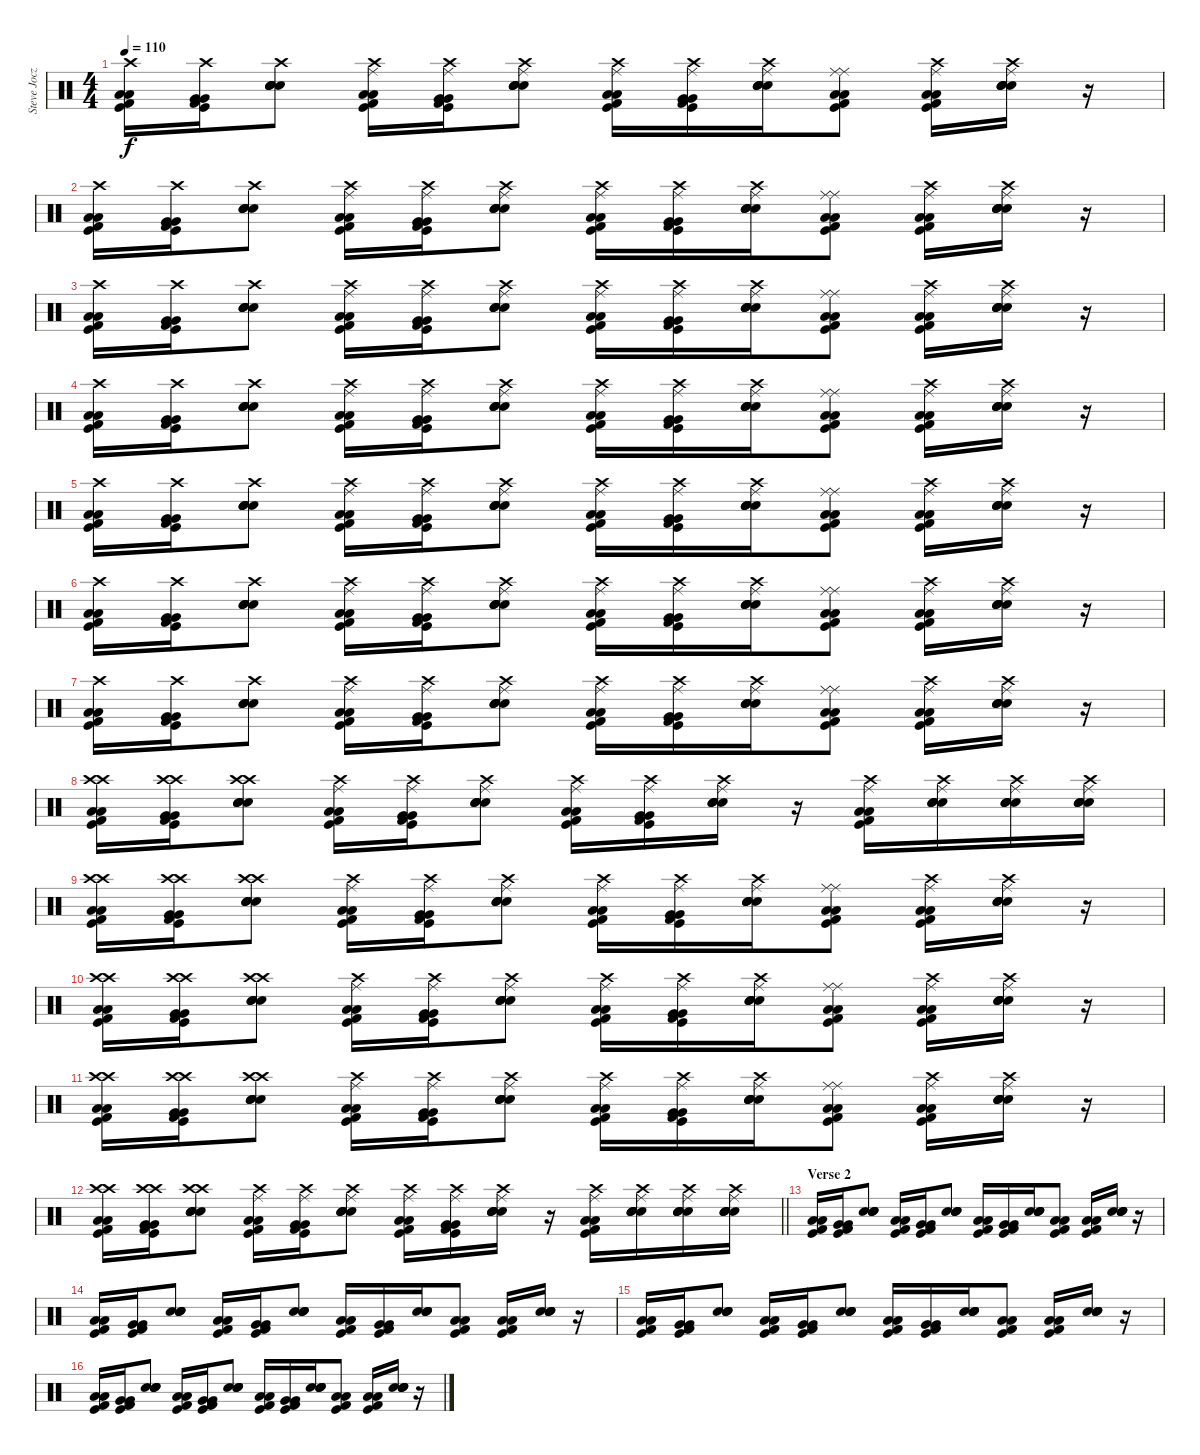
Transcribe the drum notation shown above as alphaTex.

\track ("Steve Jocz" "Steve Jocz") {instrument percussion}
\staff {score}
\articulation defaults
\ts (4 4)
\tempo 110
\clef neutral
\ks c
("Low Floor Tom (hit)" "Crash high (hit)" "Low Floor Tom (hit)" "Kick (hit)" "Kick (hit) 2").16{dy f} ("Very Low Tom (hit)" "Crash high (hit)" "Very Low Tom (hit)" "Kick (hit)" "Kick (hit) 2").16 ("Snare (hit) 2" "Crash high (hit)" "Snare (hit) 2" "Electric Snare (hit)" "Electric Snare (hit)").8 ("Low Floor Tom (hit)" "Ride (middle)" "Low Floor Tom (hit)" "Kick (hit)" "Crash high (hit)" "Kick (hit) 2").16 ("Very Low Tom (hit)" "Ride (middle)" "Very Low Tom (hit)" "Kick (hit)" "Crash high (hit)" "Kick (hit) 2").16 ("Snare (hit) 2" "Ride (middle)" "Snare (hit) 2" "Electric Snare (hit)" "Crash high (hit)" "Electric Snare (hit)").8 ("Low Floor Tom (hit)" "Ride (middle)" "Low Floor Tom (hit)" "Kick (hit)" "Crash high (hit)" "Kick (hit) 2").16 ("Very Low Tom (hit)" "Ride (middle)" "Very Low Tom (hit)" "Kick (hit)" "Crash high (hit)" "Kick (hit) 2").16 ("Snare (hit) 2" "Ride (middle)" "Snare (hit) 2" "Electric Snare (hit)" "Crash high (hit)" "Electric Snare (hit)").16 ("Low Floor Tom (hit)" "Ride (middle)" "Low Floor Tom (hit)" "Kick (hit)" "Ride (middle)" "Kick (hit) 2").8 ("Low Floor Tom (hit)" "Ride (middle)" "Low Floor Tom (hit)" "Kick (hit)" "Crash high (hit)" "Kick (hit) 2").16 ("Snare (hit) 2" "Ride (middle)" "Snare (hit) 2" "Electric Snare (hit)" "Crash high (hit)" "Electric Snare (hit)").16 r.16 |
("Low Floor Tom (hit)" "Crash high (hit)" "Low Floor Tom (hit)" "Kick (hit)" "Kick (hit) 2").16 ("Very Low Tom (hit)" "Crash high (hit)" "Very Low Tom (hit)" "Kick (hit)" "Kick (hit) 2").16 ("Snare (hit) 2" "Crash high (hit)" "Snare (hit) 2" "Electric Snare (hit)" "Electric Snare (hit)").8 ("Low Floor Tom (hit)" "Ride (middle)" "Low Floor Tom (hit)" "Kick (hit)" "Crash high (hit)" "Kick (hit) 2").16 ("Very Low Tom (hit)" "Ride (middle)" "Very Low Tom (hit)" "Kick (hit)" "Crash high (hit)" "Kick (hit) 2").16 ("Snare (hit) 2" "Ride (middle)" "Snare (hit) 2" "Electric Snare (hit)" "Crash high (hit)" "Electric Snare (hit)").8 ("Low Floor Tom (hit)" "Ride (middle)" "Low Floor Tom (hit)" "Kick (hit)" "Crash high (hit)" "Kick (hit) 2").16 ("Very Low Tom (hit)" "Ride (middle)" "Very Low Tom (hit)" "Kick (hit)" "Crash high (hit)" "Kick (hit) 2").16 ("Snare (hit) 2" "Ride (middle)" "Snare (hit) 2" "Electric Snare (hit)" "Crash high (hit)" "Electric Snare (hit)").16 ("Low Floor Tom (hit)" "Ride (middle)" "Low Floor Tom (hit)" "Kick (hit)" "Ride (middle)" "Kick (hit) 2").8 ("Low Floor Tom (hit)" "Ride (middle)" "Low Floor Tom (hit)" "Kick (hit)" "Crash high (hit)" "Kick (hit) 2").16 ("Snare (hit) 2" "Ride (middle)" "Snare (hit) 2" "Electric Snare (hit)" "Crash high (hit)" "Electric Snare (hit)").16 r.16 |
("Low Floor Tom (hit)" "Crash high (hit)" "Low Floor Tom (hit)" "Kick (hit)" "Kick (hit) 2").16 ("Very Low Tom (hit)" "Crash high (hit)" "Very Low Tom (hit)" "Kick (hit)" "Kick (hit) 2").16 ("Snare (hit) 2" "Crash high (hit)" "Snare (hit) 2" "Electric Snare (hit)" "Electric Snare (hit)").8 ("Low Floor Tom (hit)" "Ride (middle)" "Low Floor Tom (hit)" "Kick (hit)" "Crash high (hit)" "Kick (hit) 2").16 ("Very Low Tom (hit)" "Ride (middle)" "Very Low Tom (hit)" "Kick (hit)" "Crash high (hit)" "Kick (hit) 2").16 ("Snare (hit) 2" "Ride (middle)" "Snare (hit) 2" "Electric Snare (hit)" "Crash high (hit)" "Electric Snare (hit)").8 ("Low Floor Tom (hit)" "Ride (middle)" "Low Floor Tom (hit)" "Kick (hit)" "Crash high (hit)" "Kick (hit) 2").16 ("Very Low Tom (hit)" "Ride (middle)" "Very Low Tom (hit)" "Kick (hit)" "Crash high (hit)" "Kick (hit) 2").16 ("Snare (hit) 2" "Ride (middle)" "Snare (hit) 2" "Electric Snare (hit)" "Crash high (hit)" "Electric Snare (hit)").16 ("Low Floor Tom (hit)" "Ride (middle)" "Low Floor Tom (hit)" "Kick (hit)" "Ride (middle)" "Kick (hit) 2").8 ("Low Floor Tom (hit)" "Ride (middle)" "Low Floor Tom (hit)" "Kick (hit)" "Crash high (hit)" "Kick (hit) 2").16 ("Snare (hit) 2" "Ride (middle)" "Snare (hit) 2" "Electric Snare (hit)" "Crash high (hit)" "Electric Snare (hit)").16 r.16 |
("Low Floor Tom (hit)" "Crash high (hit)" "Low Floor Tom (hit)" "Kick (hit)" "Kick (hit) 2").16 ("Very Low Tom (hit)" "Crash high (hit)" "Very Low Tom (hit)" "Kick (hit)" "Kick (hit) 2").16 ("Snare (hit) 2" "Crash high (hit)" "Snare (hit) 2" "Electric Snare (hit)" "Electric Snare (hit)").8 ("Low Floor Tom (hit)" "Ride (middle)" "Low Floor Tom (hit)" "Kick (hit)" "Crash high (hit)" "Kick (hit) 2").16 ("Very Low Tom (hit)" "Ride (middle)" "Very Low Tom (hit)" "Kick (hit)" "Crash high (hit)" "Kick (hit) 2").16 ("Snare (hit) 2" "Ride (middle)" "Snare (hit) 2" "Electric Snare (hit)" "Crash high (hit)" "Electric Snare (hit)").8 ("Low Floor Tom (hit)" "Ride (middle)" "Low Floor Tom (hit)" "Kick (hit)" "Crash high (hit)" "Kick (hit) 2").16 ("Very Low Tom (hit)" "Ride (middle)" "Very Low Tom (hit)" "Kick (hit)" "Crash high (hit)" "Kick (hit) 2").16 ("Snare (hit) 2" "Ride (middle)" "Snare (hit) 2" "Electric Snare (hit)" "Crash high (hit)" "Electric Snare (hit)").16 ("Low Floor Tom (hit)" "Ride (middle)" "Low Floor Tom (hit)" "Kick (hit)" "Ride (middle)" "Kick (hit) 2").8 ("Low Floor Tom (hit)" "Ride (middle)" "Low Floor Tom (hit)" "Kick (hit)" "Crash high (hit)" "Kick (hit) 2").16 ("Snare (hit) 2" "Ride (middle)" "Snare (hit) 2" "Electric Snare (hit)" "Crash high (hit)" "Electric Snare (hit)").16 r.16 |
("Low Floor Tom (hit)" "Crash high (hit)" "Low Floor Tom (hit)" "Kick (hit)" "Kick (hit) 2").16 ("Very Low Tom (hit)" "Crash high (hit)" "Very Low Tom (hit)" "Kick (hit)" "Kick (hit) 2").16 ("Snare (hit) 2" "Crash high (hit)" "Snare (hit) 2" "Electric Snare (hit)" "Electric Snare (hit)").8 ("Low Floor Tom (hit)" "Ride (middle)" "Low Floor Tom (hit)" "Kick (hit)" "Crash high (hit)" "Kick (hit) 2").16 ("Very Low Tom (hit)" "Ride (middle)" "Very Low Tom (hit)" "Kick (hit)" "Crash high (hit)" "Kick (hit) 2").16 ("Snare (hit) 2" "Ride (middle)" "Snare (hit) 2" "Electric Snare (hit)" "Crash high (hit)" "Electric Snare (hit)").8 ("Low Floor Tom (hit)" "Ride (middle)" "Low Floor Tom (hit)" "Kick (hit)" "Crash high (hit)" "Kick (hit) 2").16 ("Very Low Tom (hit)" "Ride (middle)" "Very Low Tom (hit)" "Kick (hit)" "Crash high (hit)" "Kick (hit) 2").16 ("Snare (hit) 2" "Ride (middle)" "Snare (hit) 2" "Electric Snare (hit)" "Crash high (hit)" "Electric Snare (hit)").16 ("Low Floor Tom (hit)" "Ride (middle)" "Low Floor Tom (hit)" "Kick (hit)" "Ride (middle)" "Kick (hit) 2").8 ("Low Floor Tom (hit)" "Ride (middle)" "Low Floor Tom (hit)" "Kick (hit)" "Crash high (hit)" "Kick (hit) 2").16 ("Snare (hit) 2" "Ride (middle)" "Snare (hit) 2" "Electric Snare (hit)" "Crash high (hit)" "Electric Snare (hit)").16 r.16 |
("Low Floor Tom (hit)" "Crash high (hit)" "Low Floor Tom (hit)" "Kick (hit)" "Kick (hit) 2").16 ("Very Low Tom (hit)" "Crash high (hit)" "Very Low Tom (hit)" "Kick (hit)" "Kick (hit) 2").16 ("Snare (hit) 2" "Crash high (hit)" "Snare (hit) 2" "Electric Snare (hit)" "Electric Snare (hit)").8 ("Low Floor Tom (hit)" "Ride (middle)" "Low Floor Tom (hit)" "Kick (hit)" "Crash high (hit)" "Kick (hit) 2").16 ("Very Low Tom (hit)" "Ride (middle)" "Very Low Tom (hit)" "Kick (hit)" "Crash high (hit)" "Kick (hit) 2").16 ("Snare (hit) 2" "Ride (middle)" "Snare (hit) 2" "Electric Snare (hit)" "Crash high (hit)" "Electric Snare (hit)").8 ("Low Floor Tom (hit)" "Ride (middle)" "Low Floor Tom (hit)" "Kick (hit)" "Crash high (hit)" "Kick (hit) 2").16 ("Very Low Tom (hit)" "Ride (middle)" "Very Low Tom (hit)" "Kick (hit)" "Crash high (hit)" "Kick (hit) 2").16 ("Snare (hit) 2" "Ride (middle)" "Snare (hit) 2" "Electric Snare (hit)" "Crash high (hit)" "Electric Snare (hit)").16 ("Low Floor Tom (hit)" "Ride (middle)" "Low Floor Tom (hit)" "Kick (hit)" "Ride (middle)" "Kick (hit) 2").8 ("Low Floor Tom (hit)" "Ride (middle)" "Low Floor Tom (hit)" "Kick (hit)" "Crash high (hit)" "Kick (hit) 2").16 ("Snare (hit) 2" "Ride (middle)" "Snare (hit) 2" "Electric Snare (hit)" "Crash high (hit)" "Electric Snare (hit)").16 r.16 |
("Low Floor Tom (hit)" "Crash high (hit)" "Low Floor Tom (hit)" "Kick (hit)" "Kick (hit) 2").16 ("Very Low Tom (hit)" "Crash high (hit)" "Very Low Tom (hit)" "Kick (hit)" "Kick (hit) 2").16 ("Snare (hit) 2" "Crash high (hit)" "Snare (hit) 2" "Electric Snare (hit)" "Electric Snare (hit)").8 ("Low Floor Tom (hit)" "Ride (middle)" "Low Floor Tom (hit)" "Kick (hit)" "Crash high (hit)" "Kick (hit) 2").16 ("Very Low Tom (hit)" "Ride (middle)" "Very Low Tom (hit)" "Kick (hit)" "Crash high (hit)" "Kick (hit) 2").16 ("Snare (hit) 2" "Ride (middle)" "Snare (hit) 2" "Electric Snare (hit)" "Crash high (hit)" "Electric Snare (hit)").8 ("Low Floor Tom (hit)" "Ride (middle)" "Low Floor Tom (hit)" "Kick (hit)" "Crash high (hit)" "Kick (hit) 2").16 ("Very Low Tom (hit)" "Ride (middle)" "Very Low Tom (hit)" "Kick (hit)" "Crash high (hit)" "Kick (hit) 2").16 ("Snare (hit) 2" "Ride (middle)" "Snare (hit) 2" "Electric Snare (hit)" "Crash high (hit)" "Electric Snare (hit)").16 ("Low Floor Tom (hit)" "Ride (middle)" "Low Floor Tom (hit)" "Kick (hit)" "Ride (middle)" "Kick (hit) 2").8 ("Low Floor Tom (hit)" "Ride (middle)" "Low Floor Tom (hit)" "Kick (hit)" "Crash high (hit)" "Kick (hit) 2").16 ("Snare (hit) 2" "Ride (middle)" "Snare (hit) 2" "Electric Snare (hit)" "Crash high (hit)" "Electric Snare (hit)").16 r.16 |
("Low Floor Tom (hit)" "Crash high (hit)" "Low Floor Tom (hit)" "Kick (hit)" "Crash high (hit)" "Kick (hit) 2").16 ("Very Low Tom (hit)" "Crash high (hit)" "Very Low Tom (hit)" "Kick (hit)" "Crash high (hit)" "Kick (hit) 2").16 ("Snare (hit) 2" "Crash high (hit)" "Snare (hit) 2" "Electric Snare (hit)" "Crash high (hit)" "Electric Snare (hit)").8 ("Low Floor Tom (hit)" "Ride (middle)" "Low Floor Tom (hit)" "Kick (hit)" "Crash high (hit)" "Kick (hit) 2").16 ("Very Low Tom (hit)" "Ride (middle)" "Very Low Tom (hit)" "Kick (hit)" "Crash high (hit)" "Kick (hit) 2").16 ("Snare (hit) 2" "Ride (middle)" "Snare (hit) 2" "Electric Snare (hit)" "Crash high (hit)" "Electric Snare (hit)").8 ("Low Floor Tom (hit)" "Ride (middle)" "Low Floor Tom (hit)" "Kick (hit)" "Crash high (hit)" "Kick (hit) 2").16 ("Very Low Tom (hit)" "Ride (middle)" "Very Low Tom (hit)" "Kick (hit)" "Crash high (hit)" "Kick (hit) 2").16 ("Snare (hit) 2" "Ride (middle)" "Snare (hit) 2" "Electric Snare (hit)" "Crash high (hit)" "Electric Snare (hit)").16 r.16 ("Low Floor Tom (hit)" "Ride (middle)" "Low Floor Tom (hit)" "Kick (hit)" "Crash high (hit)" "Kick (hit) 2").16 ("Snare (hit) 2" "Ride (middle)" "Snare (hit) 2" "Electric Snare (hit)" "Crash high (hit)" "Electric Snare (hit)").16 ("Snare (hit) 2" "Ride (middle)" "Snare (hit) 2" "Electric Snare (hit)" "Crash high (hit)" "Electric Snare (hit)").16 ("Snare (hit) 2" "Ride (middle)" "Snare (hit) 2" "Electric Snare (hit)" "Crash high (hit)" "Electric Snare (hit)").16 |
("Low Floor Tom (hit)" "Crash high (hit)" "Low Floor Tom (hit)" "Kick (hit)" "Crash high (hit)" "Kick (hit) 2").16 ("Very Low Tom (hit)" "Crash high (hit)" "Very Low Tom (hit)" "Kick (hit)" "Crash high (hit)" "Kick (hit) 2").16 ("Snare (hit) 2" "Crash high (hit)" "Snare (hit) 2" "Electric Snare (hit)" "Crash high (hit)" "Electric Snare (hit)").8 ("Low Floor Tom (hit)" "Ride (middle)" "Low Floor Tom (hit)" "Kick (hit)" "Crash high (hit)" "Kick (hit) 2").16 ("Very Low Tom (hit)" "Ride (middle)" "Very Low Tom (hit)" "Kick (hit)" "Crash high (hit)" "Kick (hit) 2").16 ("Snare (hit) 2" "Ride (middle)" "Snare (hit) 2" "Electric Snare (hit)" "Crash high (hit)" "Electric Snare (hit)").8 ("Low Floor Tom (hit)" "Ride (middle)" "Low Floor Tom (hit)" "Kick (hit)" "Crash high (hit)" "Kick (hit) 2").16 ("Very Low Tom (hit)" "Ride (middle)" "Very Low Tom (hit)" "Kick (hit)" "Crash high (hit)" "Kick (hit) 2").16 ("Snare (hit) 2" "Ride (middle)" "Snare (hit) 2" "Electric Snare (hit)" "Crash high (hit)" "Electric Snare (hit)").16 ("Low Floor Tom (hit)" "Ride (middle)" "Low Floor Tom (hit)" "Kick (hit)" "Ride (middle)" "Kick (hit) 2").8 ("Low Floor Tom (hit)" "Ride (middle)" "Low Floor Tom (hit)" "Kick (hit)" "Crash high (hit)" "Kick (hit) 2").16 ("Snare (hit) 2" "Ride (middle)" "Snare (hit) 2" "Electric Snare (hit)" "Crash high (hit)" "Electric Snare (hit)").16 r.16 |
("Low Floor Tom (hit)" "Crash high (hit)" "Low Floor Tom (hit)" "Kick (hit)" "Crash high (hit)" "Kick (hit) 2").16 ("Very Low Tom (hit)" "Crash high (hit)" "Very Low Tom (hit)" "Kick (hit)" "Crash high (hit)" "Kick (hit) 2").16 ("Snare (hit) 2" "Crash high (hit)" "Snare (hit) 2" "Electric Snare (hit)" "Crash high (hit)" "Electric Snare (hit)").8 ("Low Floor Tom (hit)" "Ride (middle)" "Low Floor Tom (hit)" "Kick (hit)" "Crash high (hit)" "Kick (hit) 2").16 ("Very Low Tom (hit)" "Ride (middle)" "Very Low Tom (hit)" "Kick (hit)" "Crash high (hit)" "Kick (hit) 2").16 ("Snare (hit) 2" "Ride (middle)" "Snare (hit) 2" "Electric Snare (hit)" "Crash high (hit)" "Electric Snare (hit)").8 ("Low Floor Tom (hit)" "Ride (middle)" "Low Floor Tom (hit)" "Kick (hit)" "Crash high (hit)" "Kick (hit) 2").16 ("Very Low Tom (hit)" "Ride (middle)" "Very Low Tom (hit)" "Kick (hit)" "Crash high (hit)" "Kick (hit) 2").16 ("Snare (hit) 2" "Ride (middle)" "Snare (hit) 2" "Electric Snare (hit)" "Crash high (hit)" "Electric Snare (hit)").16 ("Low Floor Tom (hit)" "Ride (middle)" "Low Floor Tom (hit)" "Kick (hit)" "Ride (middle)" "Kick (hit) 2").8 ("Low Floor Tom (hit)" "Ride (middle)" "Low Floor Tom (hit)" "Kick (hit)" "Crash high (hit)" "Kick (hit) 2").16 ("Snare (hit) 2" "Ride (middle)" "Snare (hit) 2" "Electric Snare (hit)" "Crash high (hit)" "Electric Snare (hit)").16 r.16 |
("Low Floor Tom (hit)" "Crash high (hit)" "Low Floor Tom (hit)" "Kick (hit)" "Crash high (hit)" "Kick (hit) 2").16 ("Very Low Tom (hit)" "Crash high (hit)" "Very Low Tom (hit)" "Kick (hit)" "Crash high (hit)" "Kick (hit) 2").16 ("Snare (hit) 2" "Crash high (hit)" "Snare (hit) 2" "Electric Snare (hit)" "Crash high (hit)" "Electric Snare (hit)").8 ("Low Floor Tom (hit)" "Ride (middle)" "Low Floor Tom (hit)" "Kick (hit)" "Crash high (hit)" "Kick (hit) 2").16 ("Very Low Tom (hit)" "Ride (middle)" "Very Low Tom (hit)" "Kick (hit)" "Crash high (hit)" "Kick (hit) 2").16 ("Snare (hit) 2" "Ride (middle)" "Snare (hit) 2" "Electric Snare (hit)" "Crash high (hit)" "Electric Snare (hit)").8 ("Low Floor Tom (hit)" "Ride (middle)" "Low Floor Tom (hit)" "Kick (hit)" "Crash high (hit)" "Kick (hit) 2").16 ("Very Low Tom (hit)" "Ride (middle)" "Very Low Tom (hit)" "Kick (hit)" "Crash high (hit)" "Kick (hit) 2").16 ("Snare (hit) 2" "Ride (middle)" "Snare (hit) 2" "Electric Snare (hit)" "Crash high (hit)" "Electric Snare (hit)").16 ("Low Floor Tom (hit)" "Ride (middle)" "Low Floor Tom (hit)" "Kick (hit)" "Ride (middle)" "Kick (hit) 2").8 ("Low Floor Tom (hit)" "Ride (middle)" "Low Floor Tom (hit)" "Kick (hit)" "Crash high (hit)" "Kick (hit) 2").16 ("Snare (hit) 2" "Ride (middle)" "Snare (hit) 2" "Electric Snare (hit)" "Crash high (hit)" "Electric Snare (hit)").16 r.16 |
\barLineRight lightlight
("Low Floor Tom (hit)" "Crash high (hit)" "Low Floor Tom (hit)" "Kick (hit)" "Crash high (hit)" "Kick (hit) 2").16 ("Very Low Tom (hit)" "Crash high (hit)" "Very Low Tom (hit)" "Kick (hit)" "Crash high (hit)" "Kick (hit) 2").16 ("Snare (hit) 2" "Crash high (hit)" "Snare (hit) 2" "Electric Snare (hit)" "Crash high (hit)" "Electric Snare (hit)").8 ("Low Floor Tom (hit)" "Ride (middle)" "Low Floor Tom (hit)" "Kick (hit)" "Crash high (hit)" "Kick (hit) 2").16 ("Very Low Tom (hit)" "Ride (middle)" "Very Low Tom (hit)" "Kick (hit)" "Crash high (hit)" "Kick (hit) 2").16 ("Snare (hit) 2" "Ride (middle)" "Snare (hit) 2" "Electric Snare (hit)" "Crash high (hit)" "Electric Snare (hit)").8 ("Low Floor Tom (hit)" "Ride (middle)" "Low Floor Tom (hit)" "Kick (hit)" "Crash high (hit)" "Kick (hit) 2").16 ("Very Low Tom (hit)" "Ride (middle)" "Very Low Tom (hit)" "Kick (hit)" "Crash high (hit)" "Kick (hit) 2").16 ("Snare (hit) 2" "Ride (middle)" "Snare (hit) 2" "Electric Snare (hit)" "Crash high (hit)" "Electric Snare (hit)").16 r.16 ("Low Floor Tom (hit)" "Ride (middle)" "Low Floor Tom (hit)" "Kick (hit)" "Crash high (hit)" "Kick (hit) 2").16 ("Snare (hit) 2" "Ride (middle)" "Snare (hit) 2" "Electric Snare (hit)" "Crash high (hit)" "Electric Snare (hit)").16 ("Snare (hit) 2" "Ride (middle)" "Snare (hit) 2" "Electric Snare (hit)" "Crash high (hit)" "Electric Snare (hit)").16 ("Snare (hit) 2" "Ride (middle)" "Snare (hit) 2" "Electric Snare (hit)" "Crash high (hit)" "Electric Snare (hit)").16 |
\section ("" "Verse 2")
("Low Floor Tom (hit)" "Low Floor Tom (hit)" "Kick (hit)" "Kick (hit) 2").16 ("Very Low Tom (hit)" "Very Low Tom (hit)" "Kick (hit)" "Kick (hit) 2").16 ("Snare (hit) 2" "Snare (hit) 2" "Electric Snare (hit)" "Electric Snare (hit)").8 ("Low Floor Tom (hit)" "Low Floor Tom (hit)" "Kick (hit)" "Kick (hit) 2").16 ("Very Low Tom (hit)" "Very Low Tom (hit)" "Kick (hit)" "Kick (hit) 2").16 ("Snare (hit) 2" "Snare (hit) 2" "Electric Snare (hit)" "Electric Snare (hit)").8 ("Low Floor Tom (hit)" "Low Floor Tom (hit)" "Kick (hit)" "Kick (hit) 2").16 ("Very Low Tom (hit)" "Very Low Tom (hit)" "Kick (hit)" "Kick (hit) 2").16 ("Snare (hit) 2" "Snare (hit) 2" "Electric Snare (hit)" "Electric Snare (hit)").16 ("Low Floor Tom (hit)" "Low Floor Tom (hit)" "Kick (hit)" "Kick (hit) 2").8 ("Low Floor Tom (hit)" "Low Floor Tom (hit)" "Kick (hit)" "Kick (hit) 2").16 ("Snare (hit) 2" "Snare (hit) 2" "Electric Snare (hit)" "Electric Snare (hit)").16 r.16 |
("Low Floor Tom (hit)" "Low Floor Tom (hit)" "Kick (hit)" "Kick (hit) 2").16 ("Very Low Tom (hit)" "Very Low Tom (hit)" "Kick (hit)" "Kick (hit) 2").16 ("Snare (hit) 2" "Snare (hit) 2" "Electric Snare (hit)" "Electric Snare (hit)").8 ("Low Floor Tom (hit)" "Low Floor Tom (hit)" "Kick (hit)" "Kick (hit) 2").16 ("Very Low Tom (hit)" "Very Low Tom (hit)" "Kick (hit)" "Kick (hit) 2").16 ("Snare (hit) 2" "Snare (hit) 2" "Electric Snare (hit)" "Electric Snare (hit)").8 ("Low Floor Tom (hit)" "Low Floor Tom (hit)" "Kick (hit)" "Kick (hit) 2").16 ("Very Low Tom (hit)" "Very Low Tom (hit)" "Kick (hit)" "Kick (hit) 2").16 ("Snare (hit) 2" "Snare (hit) 2" "Electric Snare (hit)" "Electric Snare (hit)").16 ("Low Floor Tom (hit)" "Low Floor Tom (hit)" "Kick (hit)" "Kick (hit) 2").8 ("Low Floor Tom (hit)" "Low Floor Tom (hit)" "Kick (hit)" "Kick (hit) 2").16 ("Snare (hit) 2" "Snare (hit) 2" "Electric Snare (hit)" "Electric Snare (hit)").16 r.16 |
("Low Floor Tom (hit)" "Low Floor Tom (hit)" "Kick (hit)" "Kick (hit) 2").16 ("Very Low Tom (hit)" "Very Low Tom (hit)" "Kick (hit)" "Kick (hit) 2").16 ("Snare (hit) 2" "Snare (hit) 2" "Electric Snare (hit)" "Electric Snare (hit)").8 ("Low Floor Tom (hit)" "Low Floor Tom (hit)" "Kick (hit)" "Kick (hit) 2").16 ("Very Low Tom (hit)" "Very Low Tom (hit)" "Kick (hit)" "Kick (hit) 2").16 ("Snare (hit) 2" "Snare (hit) 2" "Electric Snare (hit)" "Electric Snare (hit)").8 ("Low Floor Tom (hit)" "Low Floor Tom (hit)" "Kick (hit)" "Kick (hit) 2").16 ("Very Low Tom (hit)" "Very Low Tom (hit)" "Kick (hit)" "Kick (hit) 2").16 ("Snare (hit) 2" "Snare (hit) 2" "Electric Snare (hit)" "Electric Snare (hit)").16 ("Low Floor Tom (hit)" "Low Floor Tom (hit)" "Kick (hit)" "Kick (hit) 2").8 ("Low Floor Tom (hit)" "Low Floor Tom (hit)" "Kick (hit)" "Kick (hit) 2").16 ("Snare (hit) 2" "Snare (hit) 2" "Electric Snare (hit)" "Electric Snare (hit)").16 r.16 |
("Low Floor Tom (hit)" "Low Floor Tom (hit)" "Kick (hit)" "Kick (hit) 2").16 ("Very Low Tom (hit)" "Very Low Tom (hit)" "Kick (hit)" "Kick (hit) 2").16 ("Snare (hit) 2" "Snare (hit) 2" "Electric Snare (hit)" "Electric Snare (hit)").8 ("Low Floor Tom (hit)" "Low Floor Tom (hit)" "Kick (hit)" "Kick (hit) 2").16 ("Very Low Tom (hit)" "Very Low Tom (hit)" "Kick (hit)" "Kick (hit) 2").16 ("Snare (hit) 2" "Snare (hit) 2" "Electric Snare (hit)" "Electric Snare (hit)").8 ("Low Floor Tom (hit)" "Low Floor Tom (hit)" "Kick (hit)" "Kick (hit) 2").16 ("Very Low Tom (hit)" "Very Low Tom (hit)" "Kick (hit)" "Kick (hit) 2").16 ("Snare (hit) 2" "Snare (hit) 2" "Electric Snare (hit)" "Electric Snare (hit)").16 ("Low Floor Tom (hit)" "Low Floor Tom (hit)" "Kick (hit)" "Kick (hit) 2").8 ("Low Floor Tom (hit)" "Low Floor Tom (hit)" "Kick (hit)" "Kick (hit) 2").16 ("Snare (hit) 2" "Snare (hit) 2" "Electric Snare (hit)" "Electric Snare (hit)").16 r.16
